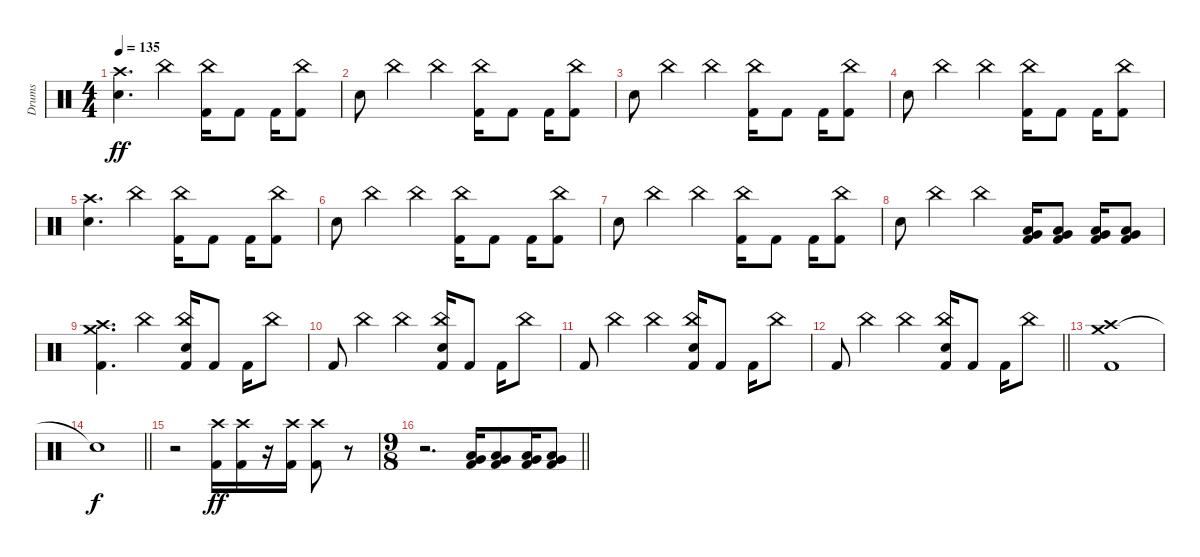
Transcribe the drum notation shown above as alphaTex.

\track ("Drums" "Drums") {instrument percussion}
\staff {score}
\articulation defaults
\ts (4 4)
\tempo 135
\clef neutral
\ks c
("Crash high (hit)" "Electric Snare (hit)").4{d dy ff} "China (hit)".4 ("China (hit)" "Kick (hit) 2").16 "Kick (hit) 2".8 "Kick (hit) 2".16 ("China (hit)" "Kick (hit) 2").8 |
"Electric Snare (hit)".8 "China (hit)".4 "China (hit)".4 ("China (hit)" "Kick (hit) 2").16 "Kick (hit) 2".8 "Kick (hit) 2".16 ("China (hit)" "Kick (hit) 2").8 |
"Electric Snare (hit)".8 "China (hit)".4 "China (hit)".4 ("China (hit)" "Kick (hit) 2").16 "Kick (hit) 2".8 "Kick (hit) 2".16 ("China (hit)" "Kick (hit) 2").8 |
"Electric Snare (hit)".8 "China (hit)".4 "China (hit)".4 ("China (hit)" "Kick (hit) 2").16 "Kick (hit) 2".8 "Kick (hit) 2".16 ("China (hit)" "Kick (hit) 2").8 |
("Crash high (hit)" "Electric Snare (hit)").4{d} "China (hit)".4 ("China (hit)" "Kick (hit) 2").16 "Kick (hit) 2".8 "Kick (hit) 2".16 ("China (hit)" "Kick (hit) 2").8 |
"Electric Snare (hit)".8 "China (hit)".4 "China (hit)".4 ("China (hit)" "Kick (hit) 2").16 "Kick (hit) 2".8 "Kick (hit) 2".16 ("China (hit)" "Kick (hit) 2").8 |
"Electric Snare (hit)".8 "China (hit)".4 "China (hit)".4 ("China (hit)" "Kick (hit) 2").16 "Kick (hit) 2".8 "Kick (hit) 2".16 ("China (hit)" "Kick (hit) 2").8 |
"Electric Snare (hit)".8 "China (hit)".4 "China (hit)".4 ("Low Tom (hit)" "Very Low Tom (hit)" "Kick (hit) 2").16 ("Low Tom (hit)" "Very Low Tom (hit)" "Kick (hit) 2").8 ("Very Low Tom (hit)" "Low Floor Tom (hit)" "Kick (hit) 2").16 ("Very Low Tom (hit)" "Low Floor Tom (hit)" "Kick (hit) 2").8 |
("Crash medium (hit)" "Crash high (hit)" "Kick (hit) 2").4{d} "China (hit)".4 ("China (hit)" "Electric Snare (hit)" "Kick (hit) 2").16 "Kick (hit) 2".8 "Kick (hit) 2".16 "China (hit)".8 |
"Kick (hit) 2".8 "China (hit)".4 "China (hit)".4 ("China (hit)" "Electric Snare (hit)" "Kick (hit) 2").16 "Kick (hit) 2".8 "Kick (hit) 2".16 "China (hit)".8 |
"Kick (hit) 2".8 "China (hit)".4 "China (hit)".4 ("China (hit)" "Electric Snare (hit)" "Kick (hit) 2").16 "Kick (hit) 2".8 "Kick (hit) 2".16 "China (hit)".8 |
\barLineRight lightlight "Kick (hit) 2".8 "China (hit)".4 "China (hit)".4
("China (hit)" "Electric Snare (hit)" "Kick (hit) 2").16 "Kick (hit) 2".8 "Kick (hit) 2".16 "China (hit)".8 |
\section ("" "")
("Crash medium (hit)" "Crash high (hit)" "Kick (hit) 2").1 |
\barLineRight lightlight "Snare (hit)"{t}.1{dy f}
|
\section ("" "")
r.2 ("Crash high (hit)" "Kick (hit) 2").16{dy ff} ("Crash high (hit)" "Kick (hit) 2").16 r.16{volume 0} ("Crash high (hit)" "Kick (hit) 2").16{volume 14} ("Crash high (hit)" "Kick (hit) 2").8 r.8{volume 0} |
\ts (9 8)
\barLineRight lightlight
r.2{d} ("Low Tom (hit)" "Very Low Tom (hit)" "Kick (hit) 2").16{volume 14} ("Low Tom (hit)" "Very Low Tom (hit)" "Kick (hit) 2").8 ("Very Low Tom (hit)" "Low Floor Tom (hit)" "Kick (hit) 2").16 ("Very Low Tom (hit)" "Low Floor Tom (hit)" "Kick (hit) 2").8
